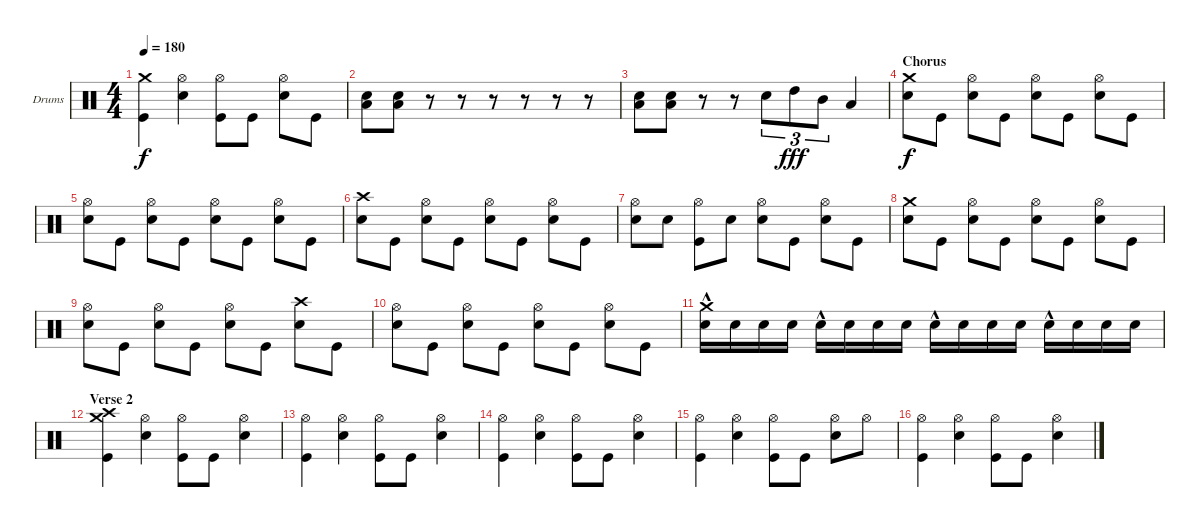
\defaultSystemsLayout 4
\bracketExtendMode groupsimilarinstruments
\firstSystemTrackNameOrientation horizontal
\otherSystemsTrackNameOrientation horizontal
\track ("Drumkit" "Drums") {instrument percussion}
\staff {score}
\articulation defaults
\ts (4 4)
\tempo 180
\clef neutral
\ks c
("Kick (hit)" "Crash medium (hit)").4{dy f} ("Snare (hit) 2" "Hi-Hat (open)").4 ("Hi-Hat (open)" "Kick (hit)").8 "Kick (hit)".8 ("Snare (hit) 2" "Hi-Hat (open)").8 "Kick (hit)".8 |
("Snare (hit) 2" "Low Tom (hit)").8 ("Snare (hit) 2" "Low Tom (hit)").8 r.8 r.8 r.8 r.8 r.8 r.8 |
("Snare (hit) 2" "Low Tom (hit)").8 ("Snare (hit) 2" "Low Tom (hit)").8 r.8 r.8 "Snare (hit) 2".8{tu (3 2)} "High Tom (hit)".8{tu (3 2) dy fff} "Mid Tom (hit)".8{tu (3 2)} "Low Tom (hit)".4 |
\section ("" "Chorus")
("Crash medium (hit)" "Snare (hit) 2").8{dy f} "Kick (hit)".8 ("Hi-Hat (open)" "Snare (hit) 2").8 "Kick (hit)".8 ("Hi-Hat (open)" "Snare (hit) 2").8 "Kick (hit)".8 ("Hi-Hat (open)" "Snare (hit) 2").8 "Kick (hit)".8 |
("Snare (hit) 2" "Hi-Hat (open)").8 "Kick (hit)".8 ("Snare (hit) 2" "Hi-Hat (open)").8 "Kick (hit)".8 ("Hi-Hat (open)" "Snare (hit) 2").8 "Kick (hit)".8 ("Hi-Hat (open)" "Snare (hit) 2").8 "Kick (hit)".8 |
("Snare (hit) 2" "Crash high (hit)").8 "Kick (hit)".8 ("Hi-Hat (open)" "Snare (hit) 2").8 "Kick (hit)".8 ("Hi-Hat (open)" "Snare (hit) 2").8 "Kick (hit)".8 ("Hi-Hat (open)" "Snare (hit) 2").8 "Kick (hit)".8 |
("Snare (hit) 2" "Hi-Hat (open)").8 "Snare (hit) 2".8 ("Kick (hit)" "Hi-Hat (open)").8 "Snare (hit) 2".8 ("Snare (hit) 2" "Hi-Hat (open)").8 "Kick (hit)".8 ("Snare (hit) 2" "Hi-Hat (open)").8 "Kick (hit)".8 |
("Crash medium (hit)" "Snare (hit) 2").8 "Kick (hit)".8 ("Hi-Hat (open)" "Snare (hit) 2").8 "Kick (hit)".8 ("Hi-Hat (open)" "Snare (hit) 2").8 "Kick (hit)".8 ("Hi-Hat (open)" "Snare (hit) 2").8 "Kick (hit)".8 |
("Snare (hit) 2" "Hi-Hat (open)").8 "Kick (hit)".8 ("Hi-Hat (open)" "Snare (hit) 2").8 "Kick (hit)".8 ("Hi-Hat (open)" "Snare (hit) 2").8 "Kick (hit)".8 ("Snare (hit) 2" "Crash high (hit)").8 "Kick (hit)".8 |
("Snare (hit) 2" "Hi-Hat (open)").8 "Kick (hit)".8 ("Hi-Hat (open)" "Snare (hit) 2").8 "Kick (hit)".8 ("Hi-Hat (open)" "Snare (hit) 2").8 "Kick (hit)".8 ("Hi-Hat (open)" "Snare (hit) 2").8 "Kick (hit)".8 |
("Snare (hit) 2"{hac} "Crash medium (hit)").16 "Snare (hit) 2".16 "Snare (hit) 2".16 "Snare (hit) 2".16 "Snare (hit) 2"{hac}.16 "Snare (hit) 2".16 "Snare (hit) 2".16 "Snare (hit) 2".16 "Snare (hit) 2"{hac}.16 "Snare (hit) 2".16 "Snare (hit) 2".16 "Snare (hit) 2".16 "Snare (hit) 2"{hac}.16 "Snare (hit) 2".16 "Snare (hit) 2".16 "Snare (hit) 2".16 |
\section ("" "Verse 2")
("Crash medium (hit)" "Kick (hit)" "Crash high (hit)").4 ("Snare (hit) 2" "Hi-Hat (open)").4 ("Hi-Hat (open)" "Kick (hit)").8 "Kick (hit)".8 ("Hi-Hat (open)" "Snare (hit) 2").4 |
("Kick (hit)" "Hi-Hat (open)").4 ("Snare (hit) 2" "Hi-Hat (open)").4 ("Hi-Hat (open)" "Kick (hit)").8 "Kick (hit)".8 ("Hi-Hat (open)" "Snare (hit) 2").4 |
("Kick (hit)" "Hi-Hat (open)").4 ("Snare (hit) 2" "Hi-Hat (open)").4 ("Hi-Hat (open)" "Kick (hit)").8 "Kick (hit)".8 ("Hi-Hat (open)" "Snare (hit) 2").4 |
("Kick (hit)" "Hi-Hat (open)").4 ("Snare (hit) 2" "Hi-Hat (open)").4 ("Hi-Hat (open)" "Kick (hit)").8 "Kick (hit)".8 ("Hi-Hat (open)" "Snare (hit) 2").8 "Hi-Hat (open)".8 |
("Kick (hit)" "Hi-Hat (open)").4 ("Snare (hit) 2" "Hi-Hat (open)").4 ("Hi-Hat (open)" "Kick (hit)").8 "Kick (hit)".8 ("Hi-Hat (open)" "Snare (hit) 2").4
